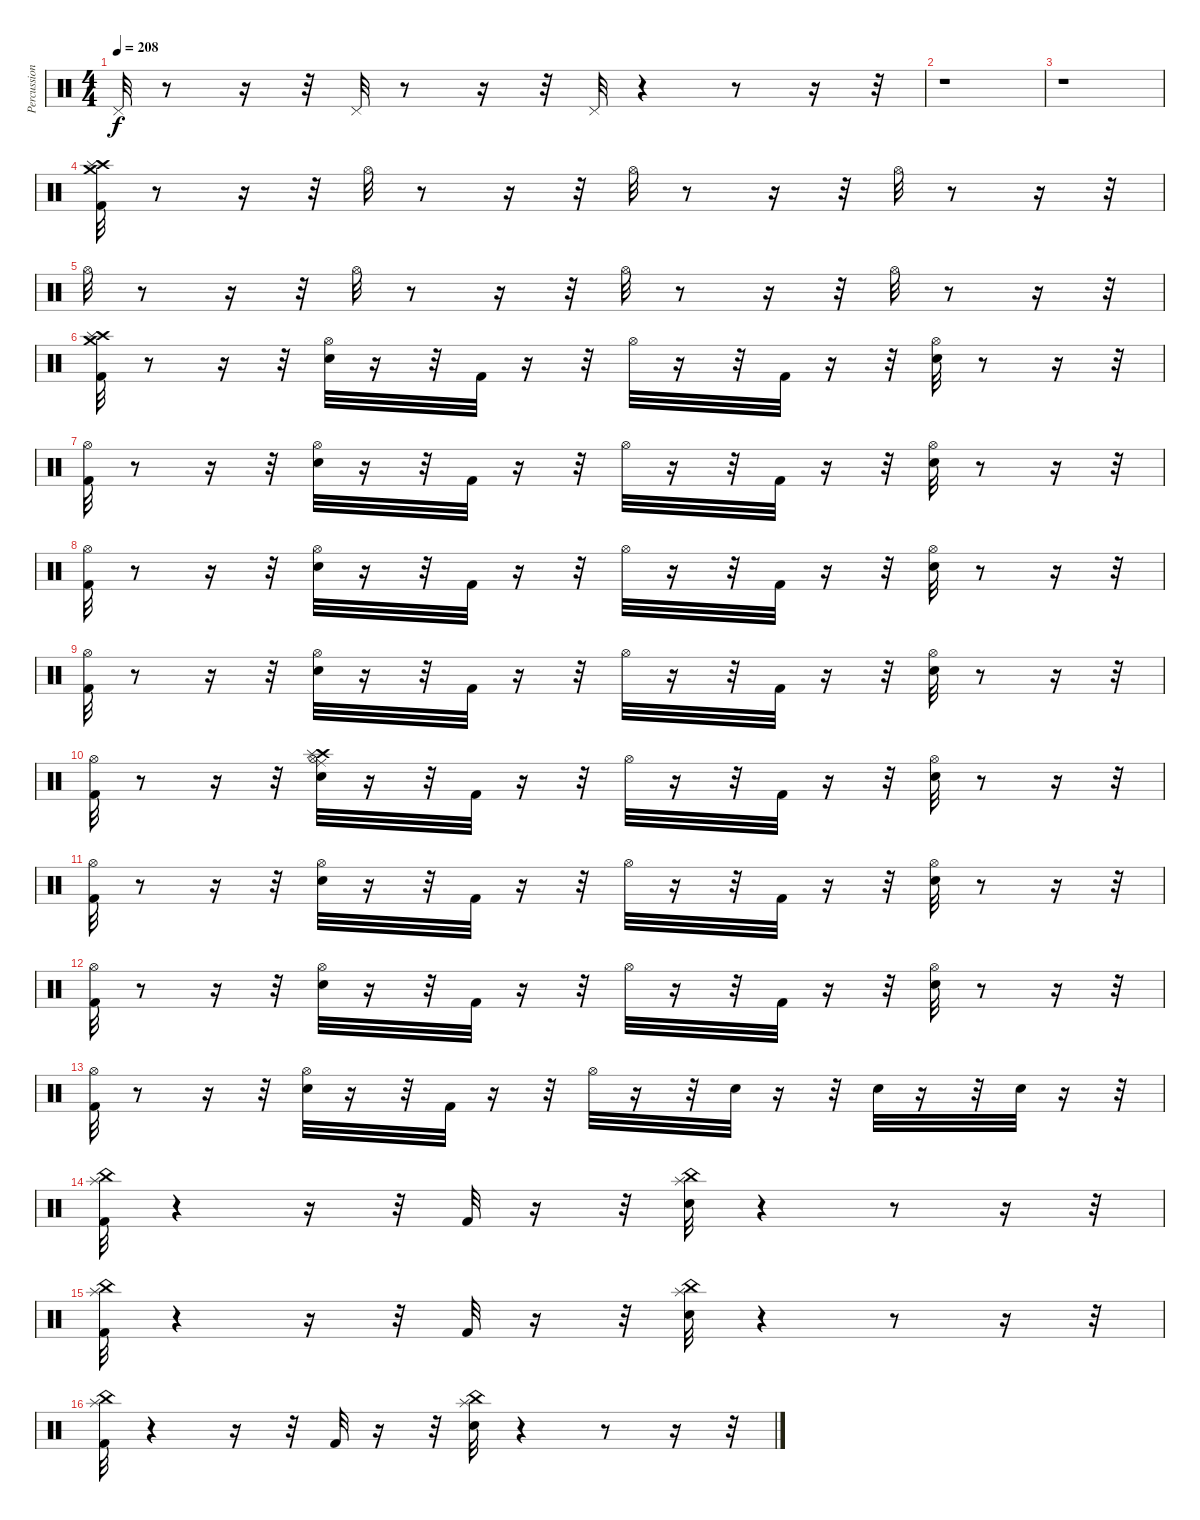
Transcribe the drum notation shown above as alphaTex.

\track ("Percussion" "Percussion") {instrument percussion}
\staff {score}
\articulation defaults
\ts (4 4)
\tempo 208
\clef neutral
\ks c "Pedal Hi-Hat (hit)".32{dy f}
r.8 r.16 r.32 "Pedal Hi-Hat (hit)".32 r.8 r.16 r.32 "Pedal Hi-Hat (hit)".32 r.4 r.8 r.16 r.32 |
r.1 |
r.1 |
("Kick (hit) 2" "Crash high (hit)" "Crash medium (hit)" "Splash (hit)").32 r.8 r.16 r.32 "Hi-Hat (open)".32 r.8 r.16 r.32 "Hi-Hat (open)".32 r.8 r.16 r.32 "Hi-Hat (open)".32 r.8 r.16 r.32 |
"Hi-Hat (open)".32 r.8 r.16 r.32 "Hi-Hat (open)".32 r.8 r.16 r.32 "Hi-Hat (open)".32 r.8 r.16 r.32 "Hi-Hat (open)".32 r.8 r.16 r.32 |
("Kick (hit) 2" "Crash high (hit)" "Crash medium (hit)" "Splash (hit)").32 r.8 r.16 r.32 ("Snare (hit) 2" "Hi-Hat (open)").32 r.16 r.32 "Kick (hit) 2".32 r.16 r.32 "Hi-Hat (open)".32 r.16 r.32 "Kick (hit) 2".32 r.16 r.32 ("Snare (hit) 2" "Hi-Hat (open)").32 r.8 r.16 r.32 |
("Kick (hit) 2" "Hi-Hat (open)").32 r.8 r.16 r.32 ("Snare (hit) 2" "Hi-Hat (open)").32 r.16 r.32 "Kick (hit) 2".32 r.16 r.32 "Hi-Hat (open)".32 r.16 r.32 "Kick (hit) 2".32 r.16 r.32 ("Snare (hit) 2" "Hi-Hat (open)").32 r.8 r.16 r.32 |
("Kick (hit) 2" "Hi-Hat (open)").32 r.8 r.16 r.32 ("Snare (hit) 2" "Hi-Hat (open)").32 r.16 r.32 "Kick (hit) 2".32 r.16 r.32 "Hi-Hat (open)".32 r.16 r.32 "Kick (hit) 2".32 r.16 r.32 ("Snare (hit) 2" "Hi-Hat (open)").32 r.8 r.16 r.32 |
("Kick (hit) 2" "Hi-Hat (open)").32 r.8 r.16 r.32 ("Snare (hit) 2" "Hi-Hat (open)").32 r.16 r.32 "Kick (hit) 2".32 r.16 r.32 "Hi-Hat (open)".32 r.16 r.32 "Kick (hit) 2".32 r.16 r.32 ("Snare (hit) 2" "Hi-Hat (open)").32 r.8 r.16 r.32 |
("Kick (hit) 2" "Hi-Hat (open)").32 r.8 r.16 r.32 ("Crash high (hit)" "Ride (middle)" "Splash (hit)" "Snare (hit) 2" "Hi-Hat (open)").32 r.16 r.32 "Kick (hit) 2".32 r.16 r.32 "Hi-Hat (open)".32 r.16 r.32 "Kick (hit) 2".32 r.16 r.32 ("Snare (hit) 2" "Hi-Hat (open)").32 r.8 r.16 r.32 |
("Kick (hit) 2" "Hi-Hat (open)").32 r.8 r.16 r.32 ("Snare (hit) 2" "Hi-Hat (open)").32 r.16 r.32 "Kick (hit) 2".32 r.16 r.32 "Hi-Hat (open)".32 r.16 r.32 "Kick (hit) 2".32 r.16 r.32 ("Snare (hit) 2" "Hi-Hat (open)").32 r.8 r.16 r.32 |
("Kick (hit) 2" "Hi-Hat (open)").32 r.8 r.16 r.32 ("Snare (hit) 2" "Hi-Hat (open)").32 r.16 r.32 "Kick (hit) 2".32 r.16 r.32 "Hi-Hat (open)".32 r.16 r.32 "Kick (hit) 2".32 r.16 r.32 ("Snare (hit) 2" "Hi-Hat (open)").32 r.8 r.16 r.32 |
("Kick (hit) 2" "Hi-Hat (open)").32 r.8 r.16 r.32 ("Snare (hit) 2" "Hi-Hat (open)").32 r.16 r.32 "Kick (hit) 2".32 r.16 r.32 "Hi-Hat (open)".32 r.16 r.32 "Snare (hit) 2".32 r.16 r.32 "Snare (hit) 2".32 r.16 r.32 "Snare (hit) 2".32 r.16 r.32 |
("Kick (hit) 2" "China (hit)" "Splash (hit)").32 r.4 r.16 r.32 "Kick (hit) 2".32 r.16 r.32 ("Snare (hit) 2" "China (hit)" "Splash (hit)").32 r.4 r.8 r.16 r.32 |
("Kick (hit) 2" "China (hit)" "Splash (hit)").32 r.4 r.16 r.32 "Kick (hit) 2".32 r.16 r.32 ("Snare (hit) 2" "China (hit)" "Splash (hit)").32 r.4 r.8 r.16 r.32 |
("Kick (hit) 2" "China (hit)" "Splash (hit)").32 r.4 r.16 r.32 "Kick (hit) 2".32 r.16 r.32 ("Snare (hit) 2" "China (hit)" "Splash (hit)").32 r.4 r.8 r.16 r.32
